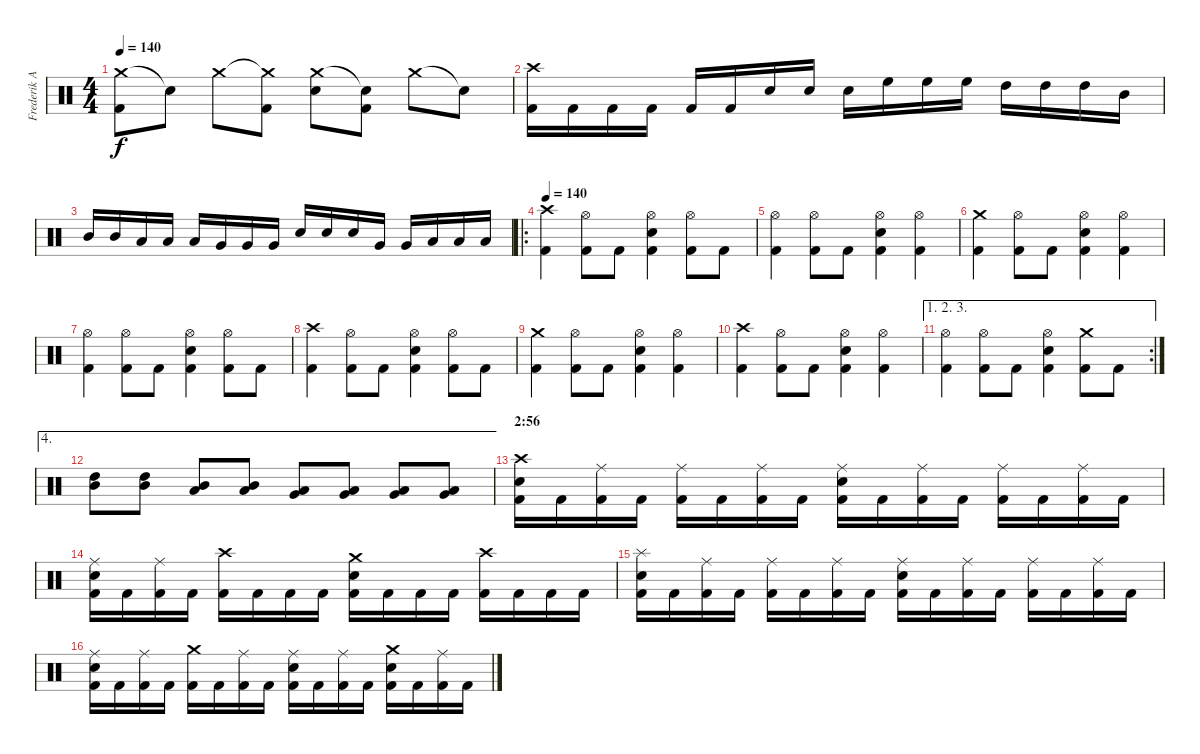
\track ("Frederik Anderson" "Frederik A") {instrument percussion}
\staff {score}
\articulation defaults
\ts (4 4)
\tempo 140
\clef neutral
\ks c
("Crash medium (hit)" "Kick (hit) 2").8{dy f} "Snare (hit)"{t}.8 "Crash medium (hit)".8 ("Crash medium (hit)"{t} "Kick (hit) 2").8 ("Crash medium (hit)" "Electric Snare (hit)").8 ("Snare (hit)"{t} "Kick (hit) 2").8 "Crash medium (hit)".8 "Snare (hit)"{t}.8 |
("Crash high (hit)" "Kick (hit) 2").16 "Kick (hit) 2".16 "Kick (hit) 2".16 "Kick (hit) 2".16 "Kick (hit) 2".16 "Kick (hit) 2".16 "Electric Snare (hit)".16 "Electric Snare (hit)".16 "Electric Snare (hit)".16 "High Floor Tom (hit)".16 "High Floor Tom (hit)".16 "High Floor Tom (hit)".16 "High Tom (hit)".16 "High Tom (hit)".16 "High Tom (hit)".16 "Mid Tom (hit)".16 |
"Mid Tom (hit)".16 "Mid Tom (hit)".16 "Low Tom (hit)".16 "Low Tom (hit)".16 "Low Tom (hit)".16 "Very Low Tom (hit)".16 "Very Low Tom (hit)".16 "Very Low Tom (hit)".16 "Electric Snare (hit)".16 "Electric Snare (hit)".16 "Electric Snare (hit)".16 "Very Low Tom (hit)".16 "Very Low Tom (hit)".16 "Low Floor Tom (hit)".16 "Low Floor Tom (hit)".16 "Low Floor Tom (hit)".16 |
\ro
\tempo 140
("Crash high (hit)" "Kick (hit) 2").4 ("Hi-Hat (open)" "Kick (hit) 2").8 "Kick (hit) 2".8 ("Hi-Hat (open)" "Electric Snare (hit)" "Kick (hit) 2").4 ("Hi-Hat (open)" "Kick (hit) 2").8 "Kick (hit) 2".8 |
("Hi-Hat (open)" "Kick (hit) 2").4 ("Hi-Hat (open)" "Kick (hit) 2").8 "Kick (hit) 2".8 ("Hi-Hat (open)" "Electric Snare (hit)" "Kick (hit) 2").4 ("Hi-Hat (open)" "Kick (hit) 2").4 |
("Crash medium (hit)" "Kick (hit) 2").4 ("Hi-Hat (open)" "Kick (hit) 2").8 "Kick (hit) 2".8 ("Hi-Hat (open)" "Electric Snare (hit)" "Kick (hit) 2").4 ("Hi-Hat (open)" "Kick (hit) 2").4 |
("Hi-Hat (open)" "Kick (hit) 2").4 ("Hi-Hat (open)" "Kick (hit) 2").8 "Kick (hit) 2".8 ("Hi-Hat (open)" "Electric Snare (hit)" "Kick (hit) 2").4 ("Hi-Hat (open)" "Kick (hit) 2").8 "Kick (hit) 2".8 |
("Crash high (hit)" "Kick (hit) 2").4 ("Hi-Hat (open)" "Kick (hit) 2").8 "Kick (hit) 2".8 ("Hi-Hat (open)" "Electric Snare (hit)" "Kick (hit) 2").4 ("Hi-Hat (open)" "Kick (hit) 2").8 "Kick (hit) 2".8 |
("Crash medium (hit)" "Kick (hit) 2").4 ("Hi-Hat (open)" "Kick (hit) 2").8 "Kick (hit) 2".8 ("Hi-Hat (open)" "Electric Snare (hit)" "Kick (hit) 2").4 ("Hi-Hat (open)" "Kick (hit) 2").4 |
("Crash high (hit)" "Kick (hit) 2").4 ("Hi-Hat (open)" "Kick (hit) 2").8 "Kick (hit) 2".8 ("Hi-Hat (open)" "Electric Snare (hit)" "Kick (hit) 2").4 ("Hi-Hat (open)" "Kick (hit) 2").4 |
\ae (1 2 3)
\rc 2
("Hi-Hat (open)" "Kick (hit) 2").4 ("Hi-Hat (open)" "Kick (hit) 2").8 "Kick (hit) 2".8 ("Hi-Hat (open)" "Electric Snare (hit)" "Kick (hit) 2").4 ("Crash medium (hit)" "Kick (hit) 2").8 "Kick (hit) 2".8 |
\ae 4
("High Tom (hit)" "Mid Tom (hit)").8 ("High Tom (hit)" "Mid Tom (hit)").8 ("Mid Tom (hit)" "Low Tom (hit)").8 ("Mid Tom (hit)" "Low Tom (hit)").8 ("Low Tom (hit)" "Very Low Tom (hit)").8 ("Low Tom (hit)" "Very Low Tom (hit)").8 ("Very Low Tom (hit)" "Low Floor Tom (hit)").8 ("Very Low Tom (hit)" "Low Floor Tom (hit)").8 |
\section ("" "2:56")
("Crash high (hit)" "Electric Snare (hit)" "Kick (hit) 2").16 "Kick (hit) 2".16 ("Ride (middle)" "Kick (hit) 2").16 "Kick (hit) 2".16 ("Ride (middle)" "Kick (hit) 2").16 "Kick (hit) 2".16 ("Ride (middle)" "Kick (hit) 2").16 "Kick (hit) 2".16 ("Ride (middle)" "Electric Snare (hit)" "Kick (hit) 2").16 "Kick (hit) 2".16 ("Ride (middle)" "Kick (hit) 2").16 "Kick (hit) 2".16 ("Ride (middle)" "Kick (hit) 2").16 "Kick (hit) 2".16 ("Ride (middle)" "Kick (hit) 2").16 "Kick (hit) 2".16 |
("Ride (middle)" "Electric Snare (hit)" "Kick (hit) 2").16 "Kick (hit) 2".16 ("Ride (middle)" "Kick (hit) 2").16 "Kick (hit) 2".16 ("Crash high (hit)" "Kick (hit) 2").16 "Kick (hit) 2".16 "Kick (hit) 2".16 "Kick (hit) 2".16 ("Crash medium (hit)" "Electric Snare (hit)" "Kick (hit) 2").16 "Kick (hit) 2".16 "Kick (hit) 2".16 "Kick (hit) 2".16 ("Crash high (hit)" "Kick (hit) 2").16 "Kick (hit) 2".16 "Kick (hit) 2".16 "Kick (hit) 2".16 |
("Splash (hit)" "Electric Snare (hit)" "Kick (hit) 2").16 "Kick (hit) 2".16 ("Ride (middle)" "Kick (hit) 2").16 "Kick (hit) 2".16 ("Ride (middle)" "Kick (hit) 2").16 "Kick (hit) 2".16 ("Ride (middle)" "Kick (hit) 2").16 "Kick (hit) 2".16 ("Ride (middle)" "Electric Snare (hit)" "Kick (hit) 2").16 "Kick (hit) 2".16 ("Ride (middle)" "Kick (hit) 2").16 "Kick (hit) 2".16 ("Ride (middle)" "Kick (hit) 2").16 "Kick (hit) 2".16 ("Ride (middle)" "Kick (hit) 2").16 "Kick (hit) 2".16 |
("Ride (middle)" "Electric Snare (hit)" "Kick (hit) 2").16 "Kick (hit) 2".16 ("Ride (middle)" "Kick (hit) 2").16 "Kick (hit) 2".16 ("Crash medium (hit)" "Kick (hit) 2").16 "Kick (hit) 2".16 ("Ride (middle)" "Kick (hit) 2").16 "Kick (hit) 2".16 ("Ride (middle)" "Electric Snare (hit)" "Kick (hit) 2").16 "Kick (hit) 2".16 ("Ride (middle)" "Kick (hit) 2").16 "Kick (hit) 2".16 ("Crash medium (hit)" "Electric Snare (hit)" "Kick (hit) 2").16 "Kick (hit) 2".16 ("Ride (middle)" "Kick (hit) 2").16 "Kick (hit) 2".16
